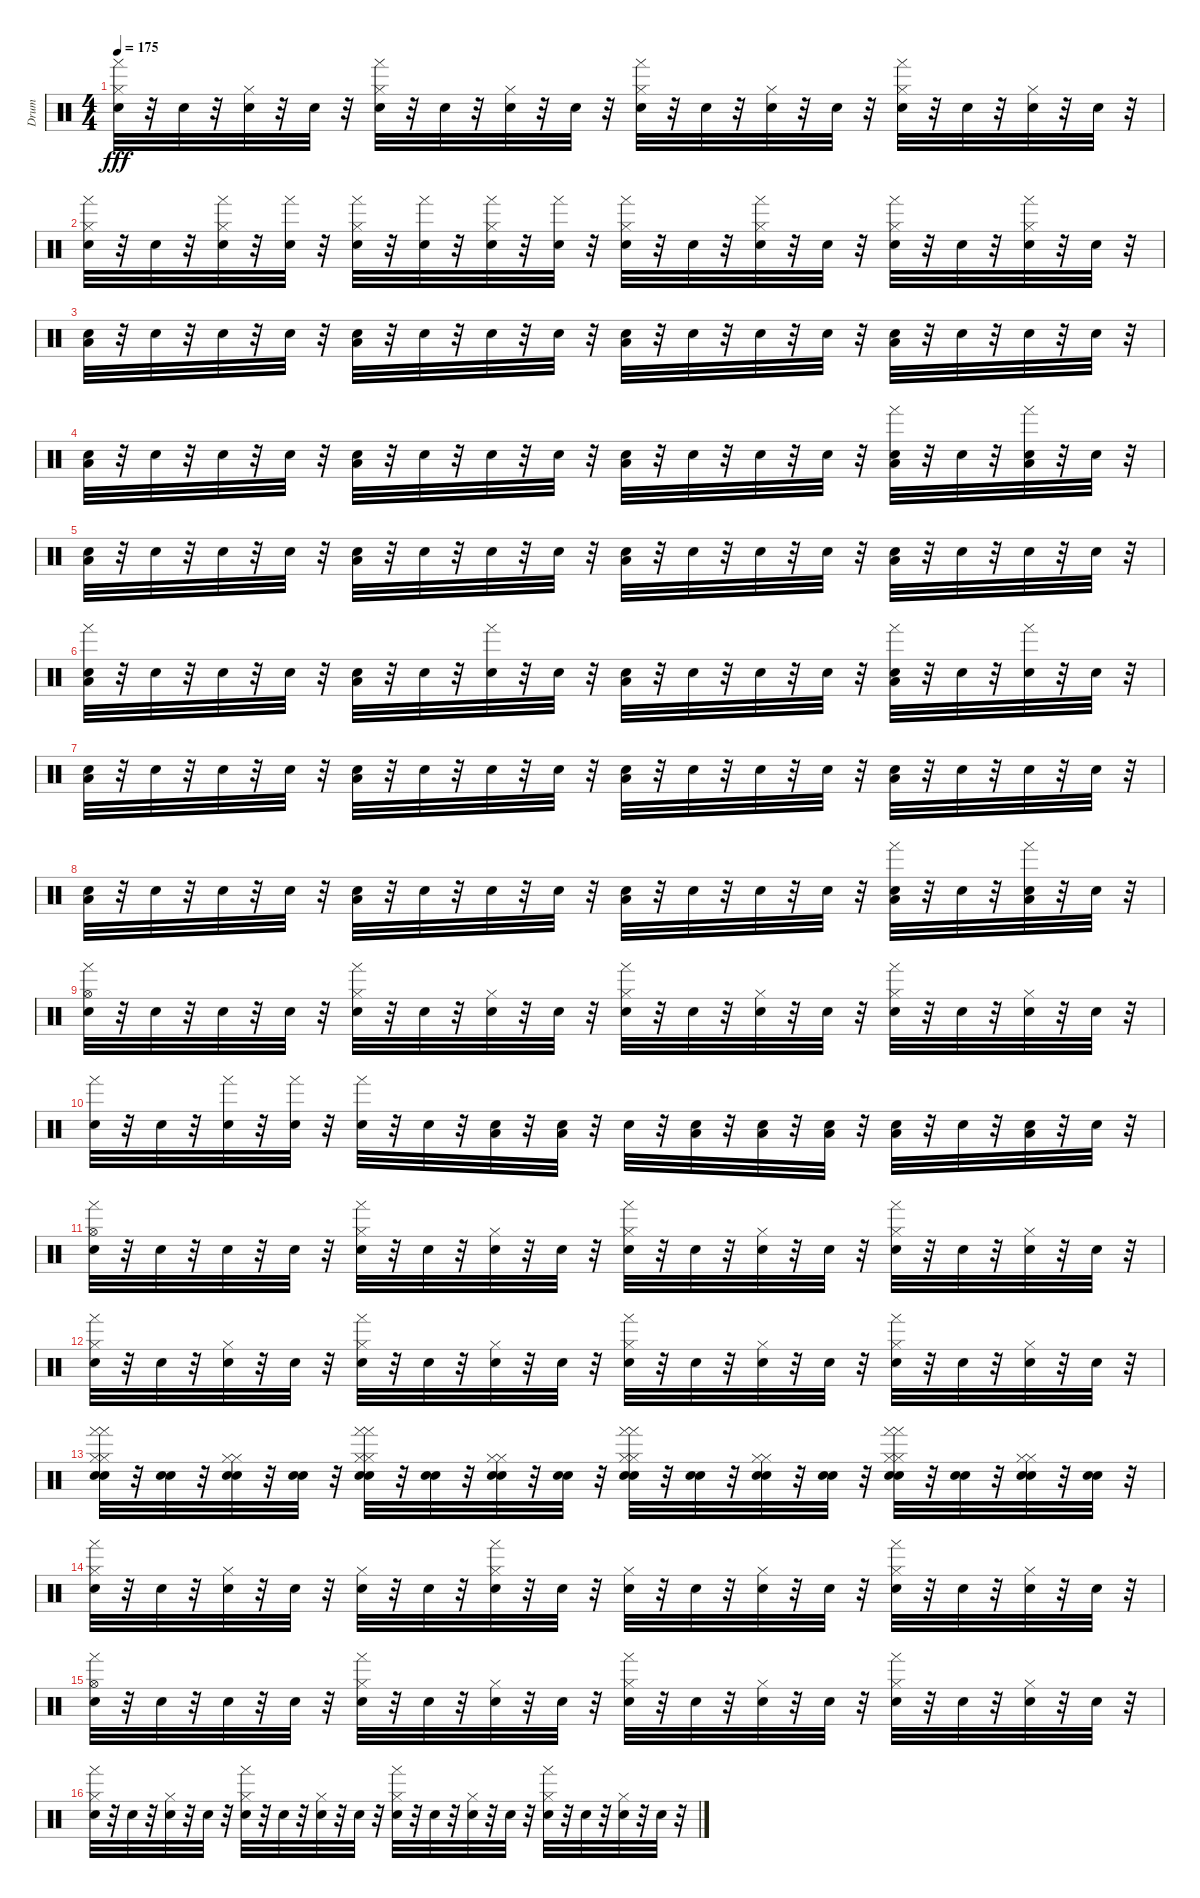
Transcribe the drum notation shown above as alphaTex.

\track ("Drum" "Drum") {instrument percussion}
\staff {score}
\articulation defaults
\ts (4 4)
\tempo 175
\clef neutral
\ks c
("Hi-Hat (closed)" "Tambourine (hand)" "Snare (hit)").32{dy fff} r.32 "Snare (hit)".32 r.32 ("Hi-Hat (closed)" "Snare (hit)").32 r.32 "Snare (hit)".32 r.32 ("Hi-Hat (closed)" "Tambourine (hand)" "Snare (hit)").32 r.32 "Snare (hit)".32 r.32 ("Hi-Hat (closed)" "Snare (hit)").32 r.32 "Snare (hit)".32 r.32 ("Hi-Hat (closed)" "Tambourine (hand)" "Snare (hit)").32 r.32 "Snare (hit)".32 r.32 ("Hi-Hat (closed)" "Snare (hit)").32 r.32 "Snare (hit)".32 r.32 ("Hi-Hat (closed)" "Tambourine (hand)" "Snare (hit)").32 r.32 "Snare (hit)".32 r.32 ("Hi-Hat (closed)" "Snare (hit)").32 r.32 "Snare (hit)".32 r.32 |
("Hi-Hat (closed)" "Tambourine (hand)" "Snare (hit)").32 r.32 "Snare (hit)".32 r.32 ("Hi-Hat (closed)" "Tambourine (hand)" "Snare (hit)").32 r.32 ("Tambourine (hand)" "Snare (hit)").32 r.32 ("Hi-Hat (closed)" "Tambourine (hand)" "Snare (hit)").32 r.32 ("Tambourine (hand)" "Snare (hit)").32 r.32 ("Hi-Hat (closed)" "Tambourine (hand)" "Snare (hit)").32 r.32 ("Tambourine (hand)" "Snare (hit)").32 r.32 ("Hi-Hat (closed)" "Tambourine (hand)" "Snare (hit)").32 r.32 "Snare (hit)".32 r.32 ("Hi-Hat (closed)" "Tambourine (hand)" "Snare (hit)").32 r.32 "Snare (hit)".32 r.32 ("Hi-Hat (closed)" "Tambourine (hand)" "Snare (hit)").32 r.32 "Snare (hit)".32 r.32 ("Hi-Hat (closed)" "Tambourine (hand)" "Snare (hit)").32 r.32 "Snare (hit)".32 r.32 |
("Low Floor Tom (hit)" "Snare (hit)").32 r.32 "Snare (hit)".32 r.32 "Snare (hit)".32 r.32 "Snare (hit)".32 r.32 ("Low Floor Tom (hit)" "Snare (hit)").32 r.32 "Snare (hit)".32 r.32 "Snare (hit)".32 r.32 "Snare (hit)".32 r.32 ("Low Floor Tom (hit)" "Snare (hit)").32 r.32 "Snare (hit)".32 r.32 "Snare (hit)".32 r.32 "Snare (hit)".32 r.32 ("Low Floor Tom (hit)" "Snare (hit)").32 r.32 "Snare (hit)".32 r.32 "Snare (hit)".32 r.32 "Snare (hit)".32 r.32 |
("Low Floor Tom (hit)" "Snare (hit)").32 r.32 "Snare (hit)".32 r.32 "Snare (hit)".32 r.32 "Snare (hit)".32 r.32 ("Low Floor Tom (hit)" "Snare (hit)").32 r.32 "Snare (hit)".32 r.32 "Snare (hit)".32 r.32 "Snare (hit)".32 r.32 ("Low Floor Tom (hit)" "Snare (hit)").32 r.32 "Snare (hit)".32 r.32 "Snare (hit)".32 r.32 "Snare (hit)".32 r.32 ("Low Floor Tom (hit)" "Tambourine (hand)" "Snare (hit)").32 r.32 "Snare (hit)".32 r.32 ("Low Floor Tom (hit)" "Tambourine (hand)" "Snare (hit)").32 r.32 "Snare (hit)".32 r.32 |
("Low Floor Tom (hit)" "Snare (hit)").32 r.32 "Snare (hit)".32 r.32 "Snare (hit)".32 r.32 "Snare (hit)".32 r.32 ("Low Floor Tom (hit)" "Snare (hit)").32 r.32 "Snare (hit)".32 r.32 "Snare (hit)".32 r.32 "Snare (hit)".32 r.32 ("Low Floor Tom (hit)" "Snare (hit)").32 r.32 "Snare (hit)".32 r.32 "Snare (hit)".32 r.32 "Snare (hit)".32 r.32 ("Low Floor Tom (hit)" "Snare (hit)").32 r.32 "Snare (hit)".32 r.32 "Snare (hit)".32 r.32 "Snare (hit)".32 r.32 |
("Low Floor Tom (hit)" "Tambourine (hand)" "Snare (hit)").32 r.32 "Snare (hit)".32 r.32 "Snare (hit)".32 r.32 "Snare (hit)".32 r.32 ("Low Floor Tom (hit)" "Snare (hit)").32 r.32 "Snare (hit)".32 r.32 ("Tambourine (hand)" "Snare (hit)").32 r.32 "Snare (hit)".32 r.32 ("Low Floor Tom (hit)" "Snare (hit)").32 r.32 "Snare (hit)".32 r.32 "Snare (hit)".32 r.32 "Snare (hit)".32 r.32 ("Low Floor Tom (hit)" "Tambourine (hand)" "Snare (hit)").32 r.32 "Snare (hit)".32 r.32 ("Tambourine (hand)" "Snare (hit)").32 r.32 "Snare (hit)".32 r.32 |
("Low Floor Tom (hit)" "Snare (hit)").32 r.32 "Snare (hit)".32 r.32 "Snare (hit)".32 r.32 "Snare (hit)".32 r.32 ("Low Floor Tom (hit)" "Snare (hit)").32 r.32 "Snare (hit)".32 r.32 "Snare (hit)".32 r.32 "Snare (hit)".32 r.32 ("Low Floor Tom (hit)" "Snare (hit)").32 r.32 "Snare (hit)".32 r.32 "Snare (hit)".32 r.32 "Snare (hit)".32 r.32 ("Low Floor Tom (hit)" "Snare (hit)").32 r.32 "Snare (hit)".32 r.32 "Snare (hit)".32 r.32 "Snare (hit)".32 r.32 |
("Low Floor Tom (hit)" "Snare (hit)").32 r.32 "Snare (hit)".32 r.32 "Snare (hit)".32 r.32 "Snare (hit)".32 r.32 ("Low Floor Tom (hit)" "Snare (hit)").32 r.32 "Snare (hit)".32 r.32 "Snare (hit)".32 r.32 "Snare (hit)".32 r.32 ("Low Floor Tom (hit)" "Snare (hit)").32 r.32 "Snare (hit)".32 r.32 "Snare (hit)".32 r.32 "Snare (hit)".32 r.32 ("Low Floor Tom (hit)" "Tambourine (hand)" "Snare (hit)").32 r.32 "Snare (hit)".32 r.32 ("Low Floor Tom (hit)" "Tambourine (hand)" "Snare (hit)").32 r.32 "Snare (hit)".32 r.32 |
("Hi-Hat (open)" "Tambourine (hand)" "Snare (hit)").32 r.32 "Snare (hit)".32 r.32 "Snare (hit)".32 r.32 "Snare (hit)".32 r.32 ("Hi-Hat (closed)" "Tambourine (hand)" "Snare (hit)").32 r.32 "Snare (hit)".32 r.32 ("Hi-Hat (closed)" "Snare (hit)").32 r.32 "Snare (hit)".32 r.32 ("Hi-Hat (closed)" "Tambourine (hand)" "Snare (hit)").32 r.32 "Snare (hit)".32 r.32 ("Hi-Hat (closed)" "Snare (hit)").32 r.32 "Snare (hit)".32 r.32 ("Hi-Hat (closed)" "Tambourine (hand)" "Snare (hit)").32 r.32 "Snare (hit)".32 r.32 ("Hi-Hat (closed)" "Snare (hit)").32 r.32 "Snare (hit)".32 r.32 |
("Tambourine (hand)" "Snare (hit)").32 r.32 "Snare (hit)".32 r.32 ("Tambourine (hand)" "Snare (hit)").32 r.32 ("Tambourine (hand)" "Snare (hit)").32 r.32 ("Tambourine (hand)" "Snare (hit)").32 r.32 "Snare (hit)".32 r.32 ("Low Floor Tom (hit)" "Snare (hit)").32 r.32 ("Low Floor Tom (hit)" "Snare (hit)").32 r.32 "Snare (hit)".32 r.32 ("Low Floor Tom (hit)" "Snare (hit)").32 r.32 ("Low Floor Tom (hit)" "Snare (hit)").32 r.32 ("Low Floor Tom (hit)" "Snare (hit)").32 r.32 ("Low Floor Tom (hit)" "Snare (hit)").32 r.32 "Snare (hit)".32 r.32 ("Low Floor Tom (hit)" "Snare (hit)").32 r.32 "Snare (hit)".32 r.32 |
("Hi-Hat (open)" "Tambourine (hand)" "Snare (hit)").32 r.32 "Snare (hit)".32 r.32 "Snare (hit)".32 r.32 "Snare (hit)".32 r.32 ("Hi-Hat (closed)" "Tambourine (hand)" "Snare (hit)").32 r.32 "Snare (hit)".32 r.32 ("Hi-Hat (closed)" "Snare (hit)").32 r.32 "Snare (hit)".32 r.32 ("Hi-Hat (closed)" "Tambourine (hand)" "Snare (hit)").32 r.32 "Snare (hit)".32 r.32 ("Hi-Hat (closed)" "Snare (hit)").32 r.32 "Snare (hit)".32 r.32 ("Hi-Hat (closed)" "Tambourine (hand)" "Snare (hit)").32 r.32 "Snare (hit)".32 r.32 ("Hi-Hat (closed)" "Snare (hit)").32 r.32 "Snare (hit)".32 r.32 |
("Hi-Hat (closed)" "Tambourine (hand)" "Snare (hit)").32 r.32 "Snare (hit)".32 r.32 ("Hi-Hat (closed)" "Snare (hit)").32 r.32 "Snare (hit)".32 r.32 ("Hi-Hat (closed)" "Tambourine (hand)" "Snare (hit)").32 r.32 "Snare (hit)".32 r.32 ("Hi-Hat (closed)" "Snare (hit)").32 r.32 "Snare (hit)".32 r.32 ("Hi-Hat (closed)" "Tambourine (hand)" "Snare (hit)").32 r.32 "Snare (hit)".32 r.32 ("Hi-Hat (closed)" "Snare (hit)").32 r.32 "Snare (hit)".32 r.32 ("Hi-Hat (closed)" "Tambourine (hand)" "Snare (hit)").32 r.32 "Snare (hit)".32 r.32 ("Hi-Hat (closed)" "Snare (hit)").32 r.32 "Snare (hit)".32 r.32 |
("Hi-Hat (closed)" "Hi-Hat (closed)" "Tambourine (hand)" "Tambourine (hand)" "Snare (hit)" "Snare (hit)").32 r.32 ("Snare (hit)" "Snare (hit)").32 r.32 ("Hi-Hat (closed)" "Hi-Hat (closed)" "Snare (hit)" "Snare (hit)").32 r.32 ("Snare (hit)" "Snare (hit)").32 r.32 ("Hi-Hat (closed)" "Hi-Hat (closed)" "Tambourine (hand)" "Tambourine (hand)" "Snare (hit)" "Snare (hit)").32 r.32 ("Snare (hit)" "Snare (hit)").32 r.32 ("Hi-Hat (closed)" "Hi-Hat (closed)" "Snare (hit)" "Snare (hit)").32 r.32 ("Snare (hit)" "Snare (hit)").32 r.32 ("Hi-Hat (closed)" "Hi-Hat (closed)" "Tambourine (hand)" "Tambourine (hand)" "Snare (hit)" "Snare (hit)").32 r.32 ("Snare (hit)" "Snare (hit)").32 r.32 ("Hi-Hat (closed)" "Hi-Hat (closed)" "Snare (hit)" "Snare (hit)").32 r.32 ("Snare (hit)" "Snare (hit)").32 r.32 ("Hi-Hat (closed)" "Hi-Hat (closed)" "Tambourine (hand)" "Tambourine (hand)" "Snare (hit)" "Snare (hit)").32 r.32 ("Snare (hit)" "Snare (hit)").32 r.32 ("Hi-Hat (closed)" "Hi-Hat (closed)" "Snare (hit)" "Snare (hit)").32 r.32 ("Snare (hit)" "Snare (hit)").32 r.32 |
("Hi-Hat (closed)" "Tambourine (hand)" "Snare (hit)").32 r.32 "Snare (hit)".32 r.32 ("Hi-Hat (closed)" "Snare (hit)").32 r.32 "Snare (hit)".32 r.32 ("Hi-Hat (closed)" "Snare (hit)").32 r.32 "Snare (hit)".32 r.32 ("Hi-Hat (closed)" "Tambourine (hand)" "Snare (hit)").32 r.32 "Snare (hit)".32 r.32 ("Hi-Hat (closed)" "Snare (hit)").32 r.32 "Snare (hit)".32 r.32 ("Hi-Hat (closed)" "Snare (hit)").32 r.32 "Snare (hit)".32 r.32 ("Hi-Hat (closed)" "Tambourine (hand)" "Snare (hit)").32 r.32 "Snare (hit)".32 r.32 ("Hi-Hat (closed)" "Snare (hit)").32 r.32 "Snare (hit)".32 r.32 |
("Hi-Hat (open)" "Tambourine (hand)" "Snare (hit)").32 r.32 "Snare (hit)".32 r.32 "Snare (hit)".32 r.32 "Snare (hit)".32 r.32 ("Hi-Hat (closed)" "Tambourine (hand)" "Snare (hit)").32 r.32 "Snare (hit)".32 r.32 ("Hi-Hat (closed)" "Snare (hit)").32 r.32 "Snare (hit)".32 r.32 ("Hi-Hat (closed)" "Tambourine (hand)" "Snare (hit)").32 r.32 "Snare (hit)".32 r.32 ("Hi-Hat (closed)" "Snare (hit)").32 r.32 "Snare (hit)".32 r.32 ("Hi-Hat (closed)" "Tambourine (hand)" "Snare (hit)").32 r.32 "Snare (hit)".32 r.32 ("Hi-Hat (closed)" "Snare (hit)").32 r.32 "Snare (hit)".32 r.32 |
("Hi-Hat (closed)" "Tambourine (hand)" "Snare (hit)").32 r.32 "Snare (hit)".32 r.32 ("Hi-Hat (closed)" "Snare (hit)").32 r.32 "Snare (hit)".32 r.32 ("Hi-Hat (closed)" "Tambourine (hand)" "Snare (hit)").32 r.32 "Snare (hit)".32 r.32 ("Hi-Hat (closed)" "Snare (hit)").32 r.32 "Snare (hit)".32 r.32 ("Hi-Hat (closed)" "Tambourine (hand)" "Snare (hit)").32 r.32 "Snare (hit)".32 r.32 ("Hi-Hat (closed)" "Snare (hit)").32 r.32 "Snare (hit)".32 r.32 ("Hi-Hat (closed)" "Tambourine (hand)" "Snare (hit)").32 r.32 "Snare (hit)".32 r.32 ("Hi-Hat (closed)" "Snare (hit)").32 r.32 "Snare (hit)".32 r.32
